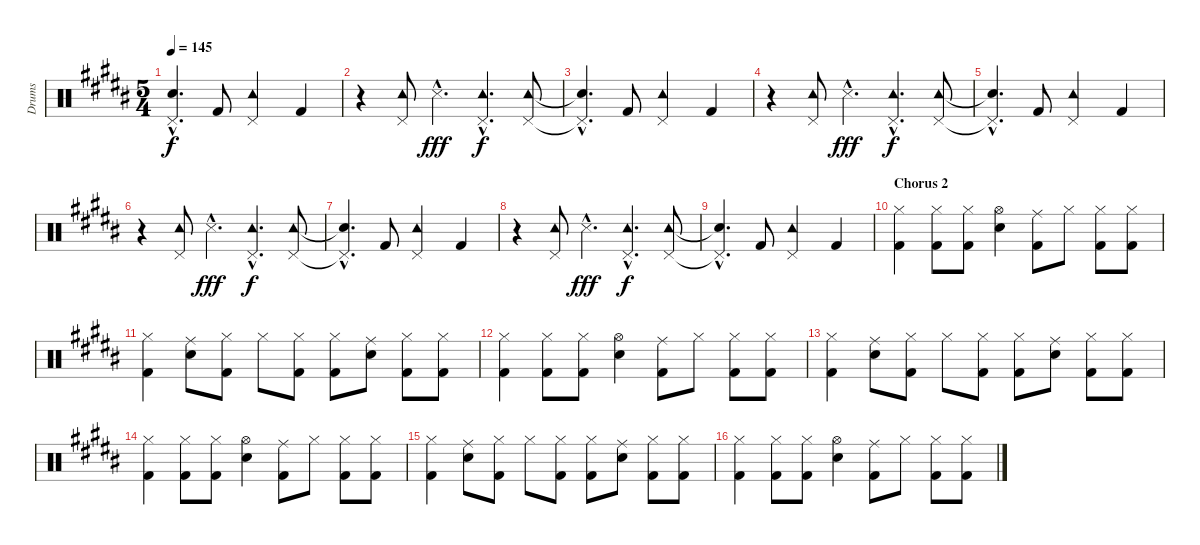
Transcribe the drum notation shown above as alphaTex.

\track ("Drums" "Drums") {instrument percussion}
\staff {score}
\articulation defaults
\ts (5 4)
\tempo 145
\clef neutral
\ks b
("Pedal Hi-Hat (hit)"{hac t} "Snare (hit)"{hac t}).4{d dy f} "Kick (hit) 2".8 ("Pedal Hi-Hat (hit)" "Tambourine (hit)").2 "Kick (hit) 2".4 |
r.4 ("Pedal Hi-Hat (hit)" "Tambourine (hit)").8 "Snare (side stick) 3"{hac}.4{d dy fff} ("Pedal Hi-Hat (hit)"{hac} "Tambourine (hit)"{hac}).4{d dy f} ("Pedal Hi-Hat (hit)" "Tambourine (hit)").8 |
("Pedal Hi-Hat (hit)"{hac t} "Snare (hit)"{hac t}).4{d} "Kick (hit) 2".8 ("Pedal Hi-Hat (hit)" "Tambourine (hit)").2 "Kick (hit) 2".4 |
r.4 ("Pedal Hi-Hat (hit)" "Tambourine (hit)").8 "Snare (side stick) 3"{hac}.4{d dy fff} ("Pedal Hi-Hat (hit)"{hac} "Tambourine (hit)"{hac}).4{d dy f} ("Pedal Hi-Hat (hit)" "Tambourine (hit)").8 |
("Pedal Hi-Hat (hit)"{hac t} "Snare (hit)"{hac t}).4{d} "Kick (hit) 2".8 ("Pedal Hi-Hat (hit)" "Tambourine (hit)").2 "Kick (hit) 2".4 |
r.4 ("Pedal Hi-Hat (hit)" "Tambourine (hit)").8 "Snare (side stick) 3"{hac}.4{d dy fff} ("Pedal Hi-Hat (hit)"{hac} "Tambourine (hit)"{hac}).4{d dy f} ("Pedal Hi-Hat (hit)" "Tambourine (hit)").8 |
("Pedal Hi-Hat (hit)"{hac t} "Snare (hit)"{hac t}).4{d} "Kick (hit) 2".8 ("Pedal Hi-Hat (hit)" "Tambourine (hit)").2 "Kick (hit) 2".4 |
r.4 ("Pedal Hi-Hat (hit)" "Tambourine (hit)").8 "Snare (side stick) 3"{hac}.4{d dy fff} ("Pedal Hi-Hat (hit)"{hac} "Tambourine (hit)"{hac}).4{d dy f} ("Pedal Hi-Hat (hit)" "Tambourine (hit)").8 |
("Pedal Hi-Hat (hit)"{hac t} "Snare (hit)"{hac t}).4{d} "Kick (hit) 2".8 ("Pedal Hi-Hat (hit)" "Tambourine (hit)").2 "Kick (hit) 2".4 |
\section ("" "Chorus 2")
("Hi-Hat (closed)" "Kick (hit) 2").4 ("Hi-Hat (closed)" "Kick (hit) 2").8 ("Hi-Hat (closed)" "Kick (hit) 2").8 ("Hi-Hat (open)" "Electric Snare (hit)").4 ("Ride (middle)" "Kick (hit) 2").8 "Hi-Hat (closed)".8 ("Hi-Hat (closed)" "Kick (hit) 2").8 ("Hi-Hat (closed)" "Kick (hit) 2").8 |
("Hi-Hat (closed)" "Kick (hit) 2").4 ("Ride (middle)" "Electric Snare (hit)").8 ("Hi-Hat (closed)" "Kick (hit) 2").8 "Hi-Hat (closed)".8 ("Hi-Hat (closed)" "Kick (hit) 2").8 ("Hi-Hat (closed)" "Kick (hit) 2").8 ("Ride (middle)" "Electric Snare (hit)").8 ("Hi-Hat (closed)" "Kick (hit) 2").8 ("Hi-Hat (closed)" "Kick (hit) 2").8 |
("Hi-Hat (closed)" "Kick (hit) 2").4 ("Hi-Hat (closed)" "Kick (hit) 2").8 ("Hi-Hat (closed)" "Kick (hit) 2").8 ("Hi-Hat (open)" "Electric Snare (hit)").4 ("Ride (middle)" "Kick (hit) 2").8 "Hi-Hat (closed)".8 ("Hi-Hat (closed)" "Kick (hit) 2").8 ("Hi-Hat (closed)" "Kick (hit) 2").8 |
("Hi-Hat (closed)" "Kick (hit) 2").4 ("Ride (middle)" "Electric Snare (hit)").8 ("Hi-Hat (closed)" "Kick (hit) 2").8 "Hi-Hat (closed)".8 ("Hi-Hat (closed)" "Kick (hit) 2").8 ("Hi-Hat (closed)" "Kick (hit) 2").8 ("Ride (middle)" "Electric Snare (hit)").8 ("Hi-Hat (closed)" "Kick (hit) 2").8 ("Hi-Hat (closed)" "Kick (hit) 2").8 |
("Hi-Hat (closed)" "Kick (hit) 2").4 ("Hi-Hat (closed)" "Kick (hit) 2").8 ("Hi-Hat (closed)" "Kick (hit) 2").8 ("Hi-Hat (open)" "Electric Snare (hit)").4 ("Ride (middle)" "Kick (hit) 2").8 "Hi-Hat (closed)".8 ("Hi-Hat (closed)" "Kick (hit) 2").8 ("Hi-Hat (closed)" "Kick (hit) 2").8 |
("Hi-Hat (closed)" "Kick (hit) 2").4 ("Ride (middle)" "Electric Snare (hit)").8 ("Hi-Hat (closed)" "Kick (hit) 2").8 "Hi-Hat (closed)".8 ("Hi-Hat (closed)" "Kick (hit) 2").8 ("Hi-Hat (closed)" "Kick (hit) 2").8 ("Ride (middle)" "Electric Snare (hit)").8 ("Hi-Hat (closed)" "Kick (hit) 2").8 ("Hi-Hat (closed)" "Kick (hit) 2").8 |
("Hi-Hat (closed)" "Kick (hit) 2").4 ("Hi-Hat (closed)" "Kick (hit) 2").8 ("Hi-Hat (closed)" "Kick (hit) 2").8 ("Hi-Hat (open)" "Electric Snare (hit)").4 ("Ride (middle)" "Kick (hit) 2").8 "Hi-Hat (closed)".8 ("Hi-Hat (closed)" "Kick (hit) 2").8 ("Hi-Hat (closed)" "Kick (hit) 2").8
